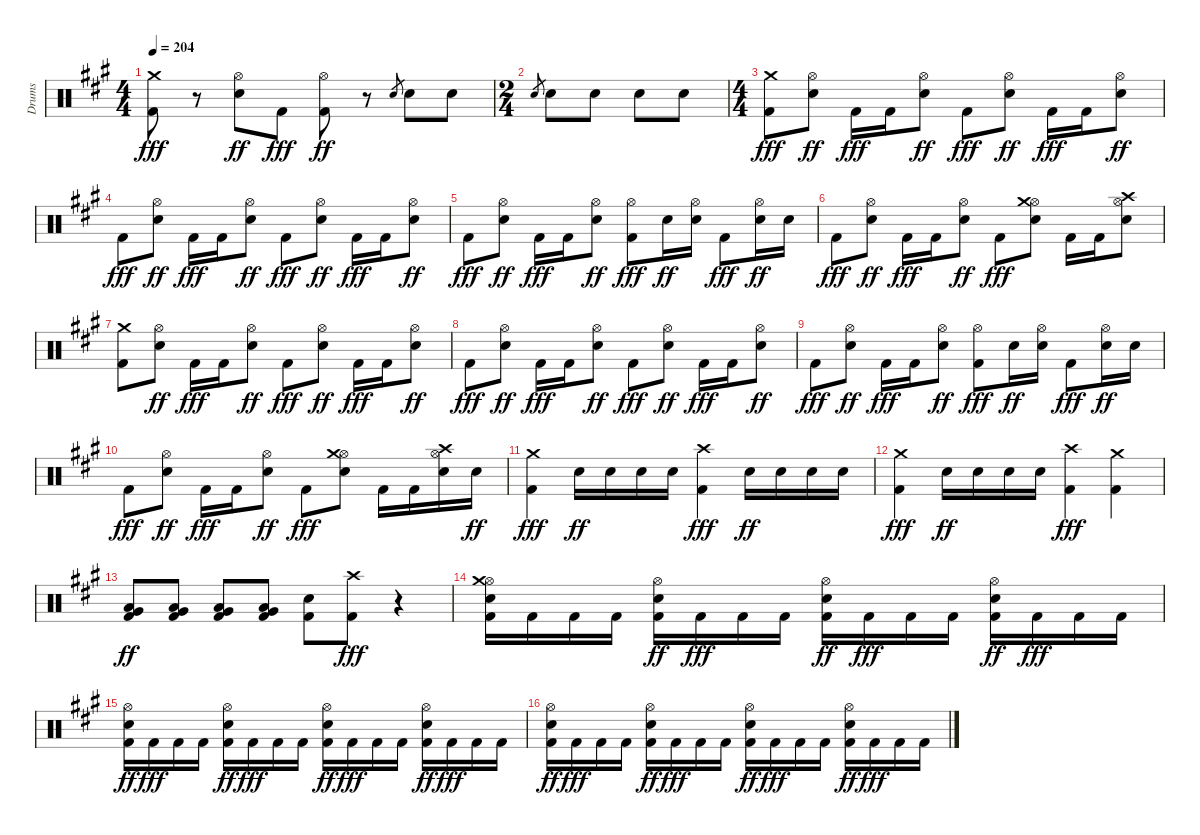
\track ("Drums" "Drums") {instrument percussion}
\staff {score}
\articulation defaults
\ts (4 4)
\tempo 204
\clef neutral
\ks a
("Kick (hit) 2" "Crash medium (hit)").8{dy fff} r.8 ("Electric Snare (hit)" "Hi-Hat (open)").8{dy ff} "Kick (hit) 2".8{dy fff} ("Kick (hit) 2" "Hi-Hat (open)").8{dy ff} r.8 "Electric Snare (hit)".8{gr} "Electric Snare (hit)".8 "Electric Snare (hit)".8 |
\ts (2 4)
"Electric Snare (hit)".8{gr} "Electric Snare (hit)".8 "Electric Snare (hit)".8 "Electric Snare (hit)".8 "Electric Snare (hit)".8 |
\ts (4 4)
("Kick (hit) 2" "Crash medium (hit)").8{dy fff} ("Electric Snare (hit)" "Hi-Hat (open)").8{dy ff} "Kick (hit) 2".16{dy fff} "Kick (hit) 2".16 ("Electric Snare (hit)" "Hi-Hat (open)").8{dy ff} "Kick (hit) 2".8{dy fff} ("Electric Snare (hit)" "Hi-Hat (open)").8{dy ff} "Kick (hit) 2".16{dy fff} "Kick (hit) 2".16 ("Electric Snare (hit)" "Hi-Hat (open)").8{dy ff} |
"Kick (hit) 2".8{dy fff} ("Electric Snare (hit)" "Hi-Hat (open)").8{dy ff} "Kick (hit) 2".16{dy fff} "Kick (hit) 2".16 ("Electric Snare (hit)" "Hi-Hat (open)").8{dy ff} "Kick (hit) 2".8{dy fff} ("Electric Snare (hit)" "Hi-Hat (open)").8{dy ff} "Kick (hit) 2".16{dy fff} "Kick (hit) 2".16 ("Electric Snare (hit)" "Hi-Hat (open)").8{dy ff} |
"Kick (hit) 2".8{dy fff} ("Electric Snare (hit)" "Hi-Hat (open)").8{dy ff} "Kick (hit) 2".16{dy fff} "Kick (hit) 2".16 ("Electric Snare (hit)" "Hi-Hat (open)").8{dy ff} ("Kick (hit) 2" "Hi-Hat (open)").8{dy fff} "Electric Snare (hit)".16{dy ff} ("Electric Snare (hit)" "Hi-Hat (open)").16 "Kick (hit) 2".8{dy fff} ("Electric Snare (hit)" "Hi-Hat (open)").16{dy ff} "Electric Snare (hit)".16 |
"Kick (hit) 2".8{dy fff} ("Electric Snare (hit)" "Hi-Hat (open)").8{dy ff} "Kick (hit) 2".16{dy fff} "Kick (hit) 2".16 ("Electric Snare (hit)" "Hi-Hat (open)").8{dy ff} "Kick (hit) 2".8{dy fff} ("Electric Snare (hit)" "Hi-Hat (open)" "Crash medium (hit)").8 "Kick (hit) 2".16 "Kick (hit) 2".16 ("Electric Snare (hit)" "Hi-Hat (open)" "Crash high (hit)").8 |
("Kick (hit) 2" "Crash medium (hit)").8 ("Electric Snare (hit)" "Hi-Hat (open)").8{dy ff} "Kick (hit) 2".16{dy fff} "Kick (hit) 2".16 ("Electric Snare (hit)" "Hi-Hat (open)").8{dy ff} "Kick (hit) 2".8{dy fff} ("Electric Snare (hit)" "Hi-Hat (open)").8{dy ff} "Kick (hit) 2".16{dy fff} "Kick (hit) 2".16 ("Electric Snare (hit)" "Hi-Hat (open)").8{dy ff} |
"Kick (hit) 2".8{dy fff} ("Electric Snare (hit)" "Hi-Hat (open)").8{dy ff} "Kick (hit) 2".16{dy fff} "Kick (hit) 2".16 ("Electric Snare (hit)" "Hi-Hat (open)").8{dy ff} "Kick (hit) 2".8{dy fff} ("Electric Snare (hit)" "Hi-Hat (open)").8{dy ff} "Kick (hit) 2".16{dy fff} "Kick (hit) 2".16 ("Electric Snare (hit)" "Hi-Hat (open)").8{dy ff} |
"Kick (hit) 2".8{dy fff} ("Electric Snare (hit)" "Hi-Hat (open)").8{dy ff} "Kick (hit) 2".16{dy fff} "Kick (hit) 2".16 ("Electric Snare (hit)" "Hi-Hat (open)").8{dy ff} ("Kick (hit) 2" "Hi-Hat (open)").8{dy fff} "Electric Snare (hit)".16{dy ff} ("Electric Snare (hit)" "Hi-Hat (open)").16 "Kick (hit) 2".8{dy fff} ("Electric Snare (hit)" "Hi-Hat (open)").16{dy ff} "Electric Snare (hit)".16 |
"Kick (hit) 2".8{dy fff} ("Electric Snare (hit)" "Hi-Hat (open)").8{dy ff} "Kick (hit) 2".16{dy fff} "Kick (hit) 2".16 ("Electric Snare (hit)" "Hi-Hat (open)").8{dy ff} "Kick (hit) 2".8{dy fff} ("Electric Snare (hit)" "Hi-Hat (open)" "Crash medium (hit)").8 "Kick (hit) 2".16 "Kick (hit) 2".16 ("Electric Snare (hit)" "Hi-Hat (open)" "Crash high (hit)").16 "Electric Snare (hit)".16{dy ff} |
("Kick (hit) 2" "Crash medium (hit)").4{dy fff} "Electric Snare (hit)".16{dy ff} "Electric Snare (hit)".16 "Electric Snare (hit)".16 "Electric Snare (hit)".16 ("Kick (hit) 2" "Crash high (hit)").4{dy fff} "Electric Snare (hit)".16{dy ff} "Electric Snare (hit)".16 "Electric Snare (hit)".16 "Electric Snare (hit)".16 |
("Kick (hit) 2" "Crash medium (hit)").4{dy fff} "Electric Snare (hit)".16{dy ff} "Electric Snare (hit)".16 "Electric Snare (hit)".16 "Electric Snare (hit)".16 ("Kick (hit) 2" "Crash high (hit)").4{dy fff} ("Kick (hit) 2" "Crash medium (hit)").4 |
("Kick (hit) 2" "Low Tom (hit)" "Very Low Tom (hit)").8{dy ff} ("Kick (hit) 2" "Low Tom (hit)" "Very Low Tom (hit)").8 ("Kick (hit) 2" "Low Tom (hit)" "Very Low Tom (hit)").8 ("Kick (hit) 2" "Low Tom (hit)" "Very Low Tom (hit)").8 ("Kick (hit) 2" "Electric Snare (hit)").8 ("Kick (hit) 2" "Crash high (hit)").8{dy fff} r.4 |
("Kick (hit) 2" "Electric Snare (hit)" "Hi-Hat (open)" "Crash medium (hit)").16 "Kick (hit) 2".16 "Kick (hit) 2".16 "Kick (hit) 2".16 ("Kick (hit) 2" "Electric Snare (hit)" "Hi-Hat (open)").16{dy ff} "Kick (hit) 2".16{dy fff} "Kick (hit) 2".16 "Kick (hit) 2".16 ("Kick (hit) 2" "Electric Snare (hit)" "Hi-Hat (open)").16{dy ff} "Kick (hit) 2".16{dy fff} "Kick (hit) 2".16 "Kick (hit) 2".16 ("Kick (hit) 2" "Electric Snare (hit)" "Hi-Hat (open)").16{dy ff} "Kick (hit) 2".16{dy fff} "Kick (hit) 2".16 "Kick (hit) 2".16 |
("Kick (hit) 2" "Electric Snare (hit)" "Hi-Hat (open)").16{dy ff} "Kick (hit) 2".16{dy fff} "Kick (hit) 2".16 "Kick (hit) 2".16 ("Kick (hit) 2" "Electric Snare (hit)" "Hi-Hat (open)").16{dy ff} "Kick (hit) 2".16{dy fff} "Kick (hit) 2".16 "Kick (hit) 2".16 ("Kick (hit) 2" "Electric Snare (hit)" "Hi-Hat (open)").16{dy ff} "Kick (hit) 2".16{dy fff} "Kick (hit) 2".16 "Kick (hit) 2".16 ("Kick (hit) 2" "Electric Snare (hit)" "Hi-Hat (open)").16{dy ff} "Kick (hit) 2".16{dy fff} "Kick (hit) 2".16 "Kick (hit) 2".16 |
("Kick (hit) 2" "Electric Snare (hit)" "Hi-Hat (open)").16{dy ff} "Kick (hit) 2".16{dy fff} "Kick (hit) 2".16 "Kick (hit) 2".16 ("Kick (hit) 2" "Electric Snare (hit)" "Hi-Hat (open)").16{dy ff} "Kick (hit) 2".16{dy fff} "Kick (hit) 2".16 "Kick (hit) 2".16 ("Kick (hit) 2" "Electric Snare (hit)" "Hi-Hat (open)").16{dy ff} "Kick (hit) 2".16{dy fff} "Kick (hit) 2".16 "Kick (hit) 2".16 ("Kick (hit) 2" "Electric Snare (hit)" "Hi-Hat (open)").16{dy ff} "Kick (hit) 2".16{dy fff} "Kick (hit) 2".16 "Kick (hit) 2".16
